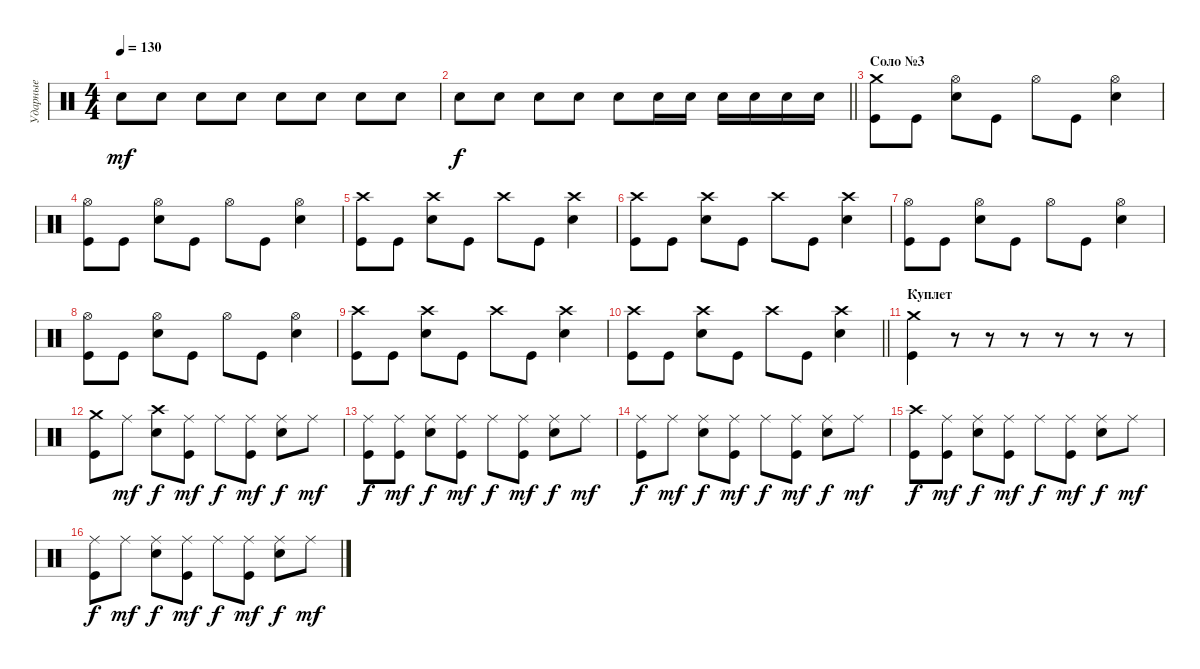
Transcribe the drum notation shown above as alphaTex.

\track ("Ударные" "Ударные") {instrument percussion}
\staff {score}
\articulation defaults
\ts (4 4)
\tempo 130
\clef neutral
\ks c "Electric Snare (hit)".8{dy mf} "Electric Snare (hit)".8 "Electric Snare (hit)".8 "Electric Snare (hit)".8 "Electric Snare (hit)".8 "Electric Snare (hit)".8 "Electric Snare (hit)".8 "Electric Snare (hit)".8
|
\barLineRight lightlight "Electric Snare (hit)".8{dy f} "Electric Snare (hit)".8 "Electric Snare (hit)".8 "Electric Snare (hit)".8 "Electric Snare (hit)".8 "Electric Snare (hit)".16 "Electric Snare (hit)".16 "Electric Snare (hit)".16 "Electric Snare (hit)".16 "Electric Snare (hit)".16 "Electric Snare (hit)".16
|
\section ("" "Соло №3")
("Crash medium (hit)" "Kick (hit)").8 "Kick (hit)".8 ("Hi-Hat (open)" "Electric Snare (hit)").8 "Kick (hit)".8 "Hi-Hat (open)".8 "Kick (hit)".8 ("Hi-Hat (open)" "Electric Snare (hit)").4 |
("Hi-Hat (open)" "Kick (hit)").8 "Kick (hit)".8 ("Hi-Hat (open)" "Electric Snare (hit)").8 "Kick (hit)".8 "Hi-Hat (open)".8 "Kick (hit)".8 ("Hi-Hat (open)" "Electric Snare (hit)").4 |
("Crash high (hit)" "Kick (hit)").8 "Kick (hit)".8 ("Crash high (hit)" "Electric Snare (hit)").8 "Kick (hit)".8 "Crash high (hit)".8 "Kick (hit)".8 ("Crash high (hit)" "Electric Snare (hit)").4 |
("Crash high (hit)" "Kick (hit)").8 "Kick (hit)".8 ("Crash high (hit)" "Electric Snare (hit)").8 "Kick (hit)".8 "Crash high (hit)".8 "Kick (hit)".8 ("Crash high (hit)" "Electric Snare (hit)").4 |
("Hi-Hat (open)" "Kick (hit)").8 "Kick (hit)".8 ("Hi-Hat (open)" "Electric Snare (hit)").8 "Kick (hit)".8 "Hi-Hat (open)".8 "Kick (hit)".8 ("Hi-Hat (open)" "Electric Snare (hit)").4 |
("Hi-Hat (open)" "Kick (hit)").8 "Kick (hit)".8 ("Hi-Hat (open)" "Electric Snare (hit)").8 "Kick (hit)".8 "Hi-Hat (open)".8 "Kick (hit)".8 ("Hi-Hat (open)" "Electric Snare (hit)").4 |
("Crash high (hit)" "Kick (hit)").8 "Kick (hit)".8 ("Crash high (hit)" "Electric Snare (hit)").8 "Kick (hit)".8 "Crash high (hit)".8 "Kick (hit)".8 ("Crash high (hit)" "Electric Snare (hit)").4 |
\barLineRight lightlight
("Crash high (hit)" "Kick (hit)").8 "Kick (hit)".8 ("Crash high (hit)" "Electric Snare (hit)").8 "Kick (hit)".8 "Crash high (hit)".8 "Kick (hit)".8 ("Crash high (hit)" "Electric Snare (hit)").4 |
\section ("" "Куплет")
("Crash medium (hit)" "Kick (hit)").4 r.8 r.8 r.8 r.8 r.8 r.8 |
("Crash medium (hit)" "Kick (hit)").8 "Ride (middle)".8{dy mf} ("Crash high (hit)" "Electric Snare (hit)").8{dy f} ("Ride (middle)" "Kick (hit)").8{dy mf} "Ride (middle)".8{dy f} ("Ride (middle)" "Kick (hit)").8{dy mf} ("Ride (middle)" "Electric Snare (hit)").8{dy f} "Ride (middle)".8{dy mf} |
("Ride (middle)" "Kick (hit)").8{dy f} ("Ride (middle)" "Kick (hit)").8{dy mf} ("Ride (middle)" "Electric Snare (hit)").8{dy f} ("Ride (middle)" "Kick (hit)").8{dy mf} "Ride (middle)".8{dy f} ("Ride (middle)" "Kick (hit)").8{dy mf} ("Ride (middle)" "Electric Snare (hit)").8{dy f} "Ride (middle)".8{dy mf} |
("Ride (middle)" "Kick (hit)").8{dy f} "Ride (middle)".8{dy mf} ("Ride (middle)" "Electric Snare (hit)").8{dy f} ("Ride (middle)" "Kick (hit)").8{dy mf} "Ride (middle)".8{dy f} ("Ride (middle)" "Kick (hit)").8{dy mf} ("Ride (middle)" "Electric Snare (hit)").8{dy f} "Ride (middle)".8{dy mf} |
("Crash high (hit)" "Kick (hit)").8{dy f} ("Ride (middle)" "Kick (hit)").8{dy mf} ("Ride (middle)" "Electric Snare (hit)").8{dy f} ("Ride (middle)" "Kick (hit)").8{dy mf} "Ride (middle)".8{dy f} ("Ride (middle)" "Kick (hit)").8{dy mf} ("Ride (middle)" "Electric Snare (hit)").8{dy f} "Ride (middle)".8{dy mf} |
("Ride (middle)" "Kick (hit)").8{dy f} "Ride (middle)".8{dy mf} ("Ride (middle)" "Electric Snare (hit)").8{dy f} ("Ride (middle)" "Kick (hit)").8{dy mf} "Ride (middle)".8{dy f} ("Ride (middle)" "Kick (hit)").8{dy mf} ("Ride (middle)" "Electric Snare (hit)").8{dy f} "Ride (middle)".8{dy mf}
